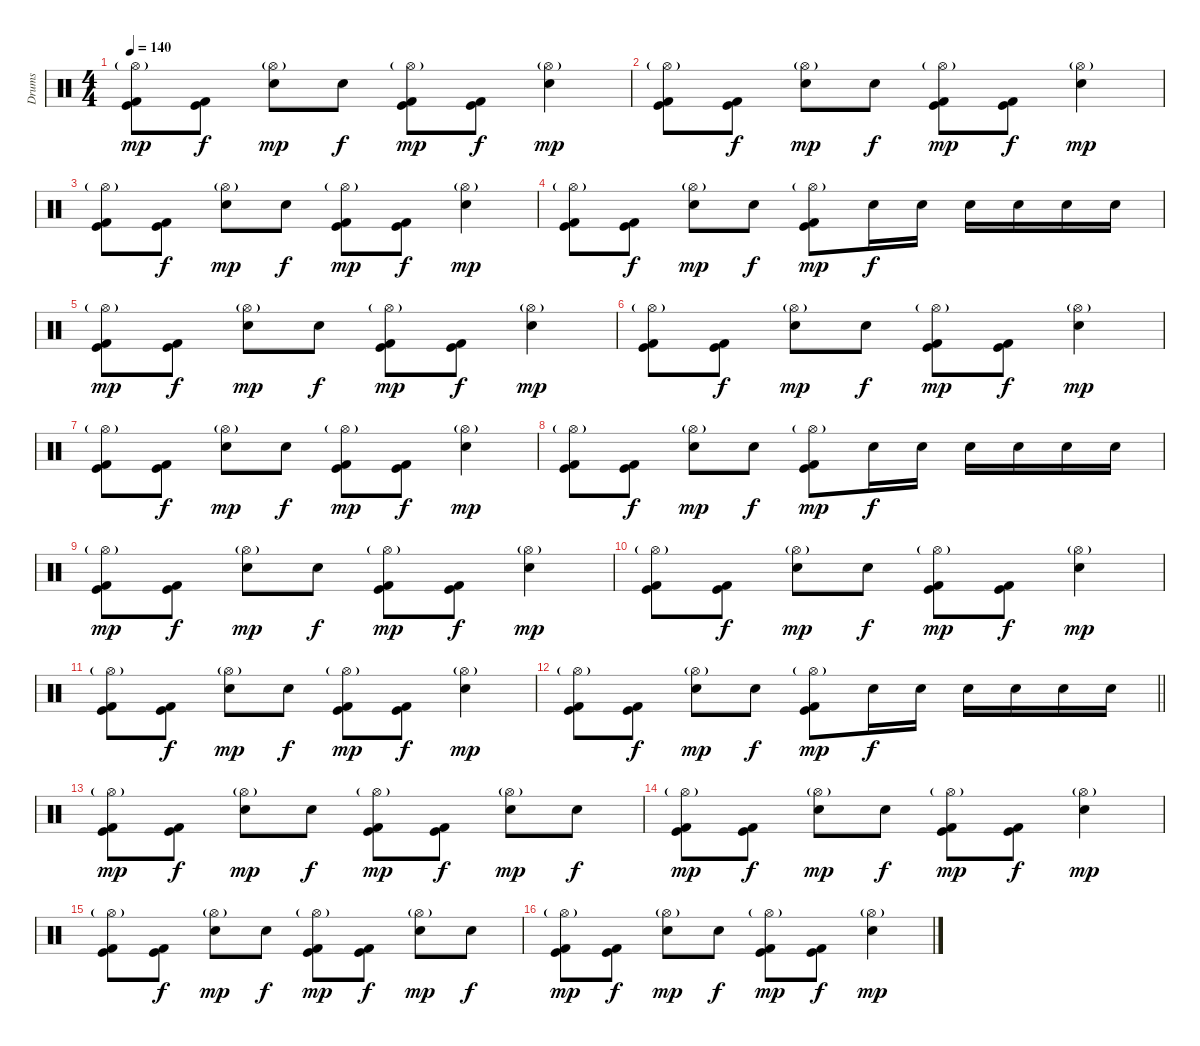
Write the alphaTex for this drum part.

\track ("Drums" "Drums") {instrument percussion}
\staff {score}
\articulation defaults
\ts (4 4)
\tempo 140
\clef neutral
\ks c
("Hi-Hat (open)"{g} "Kick (hit) 2" "Kick (hit)").8{dy mp} ("Kick (hit) 2" "Kick (hit)").8{dy f} ("Hi-Hat (open)"{g} "Snare (hit) 2").8{dy mp} "Snare (hit) 2".8{dy f} ("Hi-Hat (open)"{g} "Kick (hit) 2" "Kick (hit)").8{dy mp} ("Kick (hit) 2" "Kick (hit)").8{dy f} ("Hi-Hat (open)"{g} "Snare (hit) 2").4{dy mp} |
("Hi-Hat (open)"{g} "Kick (hit) 2" "Kick (hit)").8 ("Kick (hit) 2" "Kick (hit)").8{dy f} ("Hi-Hat (open)"{g} "Snare (hit) 2").8{dy mp} "Snare (hit) 2".8{dy f} ("Hi-Hat (open)"{g} "Kick (hit) 2" "Kick (hit)").8{dy mp} ("Kick (hit) 2" "Kick (hit)").8{dy f} ("Hi-Hat (open)"{g} "Snare (hit) 2").4{dy mp} |
("Hi-Hat (open)"{g} "Kick (hit) 2" "Kick (hit)").8 ("Kick (hit) 2" "Kick (hit)").8{dy f} ("Hi-Hat (open)"{g} "Snare (hit) 2").8{dy mp} "Snare (hit) 2".8{dy f} ("Hi-Hat (open)"{g} "Kick (hit) 2" "Kick (hit)").8{dy mp} ("Kick (hit) 2" "Kick (hit)").8{dy f} ("Hi-Hat (open)"{g} "Snare (hit) 2").4{dy mp} |
("Hi-Hat (open)"{g} "Kick (hit) 2" "Kick (hit)").8 ("Kick (hit) 2" "Kick (hit)").8{dy f} ("Hi-Hat (open)"{g} "Snare (hit) 2").8{dy mp} "Snare (hit) 2".8{dy f} ("Hi-Hat (open)"{g} "Kick (hit) 2" "Kick (hit)").8{dy mp} "Snare (hit) 2".16{dy f} "Snare (hit) 2".16 "Snare (hit) 2".16 "Snare (hit) 2".16 "Snare (hit) 2".16 "Snare (hit) 2".16 |
("Hi-Hat (open)"{g} "Kick (hit) 2" "Kick (hit)").8{dy mp} ("Kick (hit) 2" "Kick (hit)").8{dy f} ("Hi-Hat (open)"{g} "Snare (hit) 2").8{dy mp} "Snare (hit) 2".8{dy f} ("Hi-Hat (open)"{g} "Kick (hit) 2" "Kick (hit)").8{dy mp} ("Kick (hit) 2" "Kick (hit)").8{dy f} ("Hi-Hat (open)"{g} "Snare (hit) 2").4{dy mp} |
("Hi-Hat (open)"{g} "Kick (hit) 2" "Kick (hit)").8 ("Kick (hit) 2" "Kick (hit)").8{dy f} ("Hi-Hat (open)"{g} "Snare (hit) 2").8{dy mp} "Snare (hit) 2".8{dy f} ("Hi-Hat (open)"{g} "Kick (hit) 2" "Kick (hit)").8{dy mp} ("Kick (hit) 2" "Kick (hit)").8{dy f} ("Hi-Hat (open)"{g} "Snare (hit) 2").4{dy mp} |
("Hi-Hat (open)"{g} "Kick (hit) 2" "Kick (hit)").8 ("Kick (hit) 2" "Kick (hit)").8{dy f} ("Hi-Hat (open)"{g} "Snare (hit) 2").8{dy mp} "Snare (hit) 2".8{dy f} ("Hi-Hat (open)"{g} "Kick (hit) 2" "Kick (hit)").8{dy mp} ("Kick (hit) 2" "Kick (hit)").8{dy f} ("Hi-Hat (open)"{g} "Snare (hit) 2").4{dy mp} |
("Hi-Hat (open)"{g} "Kick (hit) 2" "Kick (hit)").8 ("Kick (hit) 2" "Kick (hit)").8{dy f} ("Hi-Hat (open)"{g} "Snare (hit) 2").8{dy mp} "Snare (hit) 2".8{dy f} ("Hi-Hat (open)"{g} "Kick (hit) 2" "Kick (hit)").8{dy mp} "Snare (hit) 2".16{dy f} "Snare (hit) 2".16 "Snare (hit) 2".16 "Snare (hit) 2".16 "Snare (hit) 2".16 "Snare (hit) 2".16 |
("Hi-Hat (open)"{g} "Kick (hit) 2" "Kick (hit)").8{dy mp} ("Kick (hit) 2" "Kick (hit)").8{dy f} ("Hi-Hat (open)"{g} "Snare (hit) 2").8{dy mp} "Snare (hit) 2".8{dy f} ("Hi-Hat (open)"{g} "Kick (hit) 2" "Kick (hit)").8{dy mp} ("Kick (hit) 2" "Kick (hit)").8{dy f} ("Hi-Hat (open)"{g} "Snare (hit) 2").4{dy mp} |
("Hi-Hat (open)"{g} "Kick (hit) 2" "Kick (hit)").8 ("Kick (hit) 2" "Kick (hit)").8{dy f} ("Hi-Hat (open)"{g} "Snare (hit) 2").8{dy mp} "Snare (hit) 2".8{dy f} ("Hi-Hat (open)"{g} "Kick (hit) 2" "Kick (hit)").8{dy mp} ("Kick (hit) 2" "Kick (hit)").8{dy f} ("Hi-Hat (open)"{g} "Snare (hit) 2").4{dy mp} |
("Hi-Hat (open)"{g} "Kick (hit) 2" "Kick (hit)").8 ("Kick (hit) 2" "Kick (hit)").8{dy f} ("Hi-Hat (open)"{g} "Snare (hit) 2").8{dy mp} "Snare (hit) 2".8{dy f} ("Hi-Hat (open)"{g} "Kick (hit) 2" "Kick (hit)").8{dy mp} ("Kick (hit) 2" "Kick (hit)").8{dy f} ("Hi-Hat (open)"{g} "Snare (hit) 2").4{dy mp} |
\barLineRight lightlight
("Hi-Hat (open)"{g} "Kick (hit) 2" "Kick (hit)").8 ("Kick (hit) 2" "Kick (hit)").8{dy f} ("Hi-Hat (open)"{g} "Snare (hit) 2").8{dy mp} "Snare (hit) 2".8{dy f} ("Hi-Hat (open)"{g} "Kick (hit) 2" "Kick (hit)").8{dy mp} "Snare (hit) 2".16{dy f} "Snare (hit) 2".16 "Snare (hit) 2".16 "Snare (hit) 2".16 "Snare (hit) 2".16 "Snare (hit) 2".16 |
("Hi-Hat (open)"{g} "Kick (hit) 2" "Kick (hit)").8{dy mp} ("Kick (hit) 2" "Kick (hit)").8{dy f} ("Hi-Hat (open)"{g} "Snare (hit) 2").8{dy mp} "Snare (hit) 2".8{dy f} ("Hi-Hat (open)"{g} "Kick (hit) 2" "Kick (hit)").8{dy mp} ("Kick (hit) 2" "Kick (hit)").8{dy f} ("Hi-Hat (open)"{g} "Snare (hit) 2").8{dy mp} "Snare (hit) 2".8{dy f} |
("Hi-Hat (open)"{g} "Kick (hit) 2" "Kick (hit)").8{dy mp} ("Kick (hit) 2" "Kick (hit)").8{dy f} ("Hi-Hat (open)"{g} "Snare (hit) 2").8{dy mp} "Snare (hit) 2".8{dy f} ("Hi-Hat (open)"{g} "Kick (hit) 2" "Kick (hit)").8{dy mp} ("Kick (hit) 2" "Kick (hit)").8{dy f} ("Hi-Hat (open)"{g} "Snare (hit) 2").4{dy mp} |
("Hi-Hat (open)"{g} "Kick (hit) 2" "Kick (hit)").8 ("Kick (hit) 2" "Kick (hit)").8{dy f} ("Hi-Hat (open)"{g} "Snare (hit) 2").8{dy mp} "Snare (hit) 2".8{dy f} ("Hi-Hat (open)"{g} "Kick (hit) 2" "Kick (hit)").8{dy mp} ("Kick (hit) 2" "Kick (hit)").8{dy f} ("Hi-Hat (open)"{g} "Snare (hit) 2").8{dy mp} "Snare (hit) 2".8{dy f} |
("Hi-Hat (open)"{g} "Kick (hit) 2" "Kick (hit)").8{dy mp} ("Kick (hit) 2" "Kick (hit)").8{dy f} ("Hi-Hat (open)"{g} "Snare (hit) 2").8{dy mp} "Snare (hit) 2".8{dy f} ("Hi-Hat (open)"{g} "Kick (hit) 2" "Kick (hit)").8{dy mp} ("Kick (hit) 2" "Kick (hit)").8{dy f} ("Hi-Hat (open)"{g} "Snare (hit) 2").4{dy mp}
